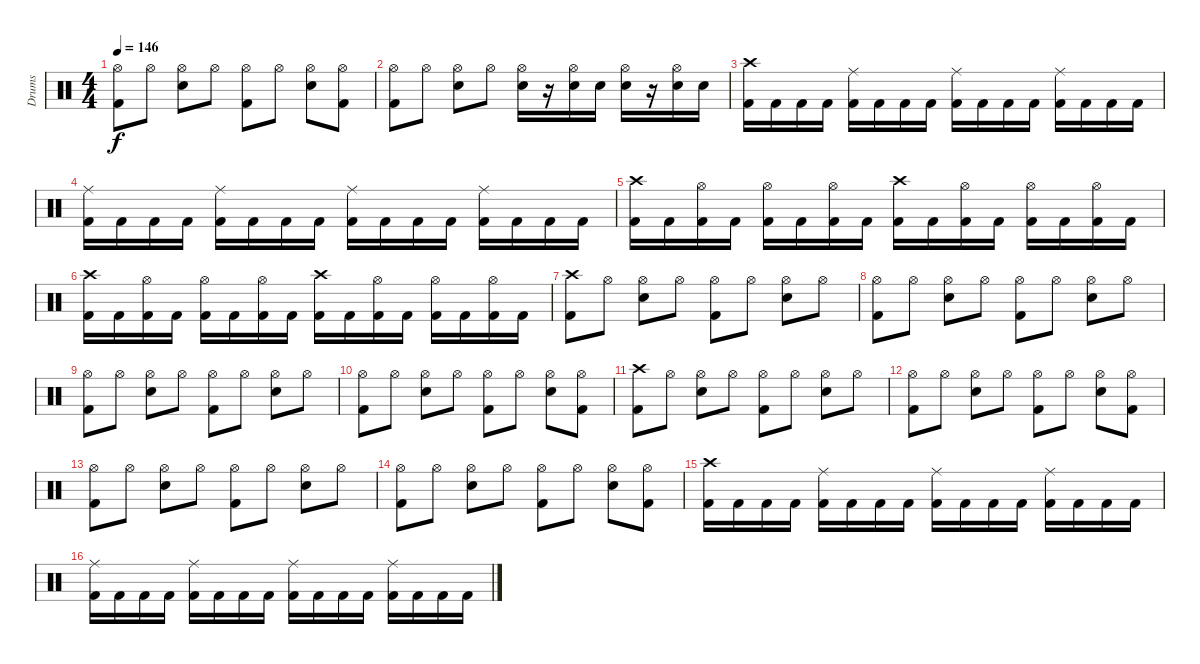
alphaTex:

\track ("Drums" "Drums") {instrument percussion}
\staff {score}
\articulation defaults
\ts (4 4)
\tempo 146
\clef neutral
\ks c
("Hi-Hat (open)" "Kick (hit) 2").8{dy f} "Hi-Hat (open)".8 ("Hi-Hat (open)" "Snare (hit) 2").8 "Hi-Hat (open)".8 ("Hi-Hat (open)" "Kick (hit) 2").8 "Hi-Hat (open)".8 ("Hi-Hat (open)" "Snare (hit) 2").8 ("Hi-Hat (open)" "Kick (hit) 2").8 |
("Hi-Hat (open)" "Kick (hit) 2").8 "Hi-Hat (open)".8 ("Hi-Hat (open)" "Snare (hit) 2").8 "Hi-Hat (open)".8 ("Hi-Hat (open)" "Snare (hit) 2").16 r.16 ("Hi-Hat (open)" "Snare (hit) 2").16 "Snare (hit) 2".16 ("Hi-Hat (open)" "Snare (hit) 2").16 r.16 ("Hi-Hat (open)" "Snare (hit) 2").16 "Snare (hit) 2".16 |
("Crash high (hit)" "Kick (hit) 2").16 "Kick (hit) 2".16 "Kick (hit) 2".16 "Kick (hit) 2".16 ("Ride (middle)" "Kick (hit) 2").16 "Kick (hit) 2".16 "Kick (hit) 2".16 "Kick (hit) 2".16 ("Ride (middle)" "Kick (hit) 2").16 "Kick (hit) 2".16 "Kick (hit) 2".16 "Kick (hit) 2".16 ("Ride (middle)" "Kick (hit) 2").16 "Kick (hit) 2".16 "Kick (hit) 2".16 "Kick (hit) 2".16 |
("Ride (middle)" "Kick (hit) 2").16 "Kick (hit) 2".16 "Kick (hit) 2".16 "Kick (hit) 2".16 ("Ride (middle)" "Kick (hit) 2").16 "Kick (hit) 2".16 "Kick (hit) 2".16 "Kick (hit) 2".16 ("Ride (middle)" "Kick (hit) 2").16 "Kick (hit) 2".16 "Kick (hit) 2".16 "Kick (hit) 2".16 ("Ride (middle)" "Kick (hit) 2").16 "Kick (hit) 2".16 "Kick (hit) 2".16 "Kick (hit) 2".16 |
("Crash high (hit)" "Kick (hit) 2").16 "Kick (hit) 2".16 ("Hi-Hat (open)" "Kick (hit) 2").16 "Kick (hit) 2".16 ("Hi-Hat (open)" "Kick (hit) 2").16 "Kick (hit) 2".16 ("Hi-Hat (open)" "Kick (hit) 2").16 "Kick (hit) 2".16 ("Crash high (hit)" "Kick (hit) 2").16 "Kick (hit) 2".16 ("Hi-Hat (open)" "Kick (hit) 2").16 "Kick (hit) 2".16 ("Hi-Hat (open)" "Kick (hit) 2").16 "Kick (hit) 2".16 ("Hi-Hat (open)" "Kick (hit) 2").16 "Kick (hit) 2".16 |
("Crash high (hit)" "Kick (hit) 2").16 "Kick (hit) 2".16 ("Hi-Hat (open)" "Kick (hit) 2").16 "Kick (hit) 2".16 ("Hi-Hat (open)" "Kick (hit) 2").16 "Kick (hit) 2".16 ("Hi-Hat (open)" "Kick (hit) 2").16 "Kick (hit) 2".16 ("Crash high (hit)" "Kick (hit) 2").16 "Kick (hit) 2".16 ("Hi-Hat (open)" "Kick (hit) 2").16 "Kick (hit) 2".16 ("Hi-Hat (open)" "Kick (hit) 2").16 "Kick (hit) 2".16 ("Hi-Hat (open)" "Kick (hit) 2").16 "Kick (hit) 2".16 |
("Crash high (hit)" "Kick (hit) 2").8 "Hi-Hat (open)".8 ("Hi-Hat (open)" "Snare (hit) 2").8 "Hi-Hat (open)".8 ("Hi-Hat (open)" "Kick (hit) 2").8 "Hi-Hat (open)".8 ("Hi-Hat (open)" "Snare (hit) 2").8 "Hi-Hat (open)".8 |
("Hi-Hat (open)" "Kick (hit) 2").8 "Hi-Hat (open)".8 ("Hi-Hat (open)" "Snare (hit) 2").8 "Hi-Hat (open)".8 ("Hi-Hat (open)" "Kick (hit) 2").8 "Hi-Hat (open)".8 ("Hi-Hat (open)" "Snare (hit) 2").8 "Hi-Hat (open)".8 |
("Hi-Hat (open)" "Kick (hit) 2").8 "Hi-Hat (open)".8 ("Hi-Hat (open)" "Snare (hit) 2").8 "Hi-Hat (open)".8 ("Hi-Hat (open)" "Kick (hit) 2").8 "Hi-Hat (open)".8 ("Hi-Hat (open)" "Snare (hit) 2").8 "Hi-Hat (open)".8 |
("Hi-Hat (open)" "Kick (hit) 2").8 "Hi-Hat (open)".8 ("Hi-Hat (open)" "Snare (hit) 2").8 "Hi-Hat (open)".8 ("Hi-Hat (open)" "Kick (hit) 2").8 "Hi-Hat (open)".8 ("Hi-Hat (open)" "Snare (hit) 2").8 ("Hi-Hat (open)" "Kick (hit) 2").8 |
("Crash high (hit)" "Kick (hit) 2").8 "Hi-Hat (open)".8 ("Hi-Hat (open)" "Snare (hit) 2").8 "Hi-Hat (open)".8 ("Hi-Hat (open)" "Kick (hit) 2").8 "Hi-Hat (open)".8 ("Hi-Hat (open)" "Snare (hit) 2").8 "Hi-Hat (open)".8 |
("Hi-Hat (open)" "Kick (hit) 2").8 "Hi-Hat (open)".8 ("Hi-Hat (open)" "Snare (hit) 2").8 "Hi-Hat (open)".8 ("Hi-Hat (open)" "Kick (hit) 2").8 "Hi-Hat (open)".8 ("Hi-Hat (open)" "Snare (hit) 2").8 ("Hi-Hat (open)" "Kick (hit) 2").8 |
("Hi-Hat (open)" "Kick (hit) 2").8 "Hi-Hat (open)".8 ("Hi-Hat (open)" "Snare (hit) 2").8 "Hi-Hat (open)".8 ("Hi-Hat (open)" "Kick (hit) 2").8 "Hi-Hat (open)".8 ("Hi-Hat (open)" "Snare (hit) 2").8 "Hi-Hat (open)".8 |
("Hi-Hat (open)" "Kick (hit) 2").8 "Hi-Hat (open)".8 ("Hi-Hat (open)" "Snare (hit) 2").8 "Hi-Hat (open)".8 ("Hi-Hat (open)" "Kick (hit) 2").8 "Hi-Hat (open)".8 ("Hi-Hat (open)" "Snare (hit) 2").8 ("Hi-Hat (open)" "Kick (hit) 2").8 |
("Crash high (hit)" "Kick (hit) 2").16 "Kick (hit) 2".16 "Kick (hit) 2".16 "Kick (hit) 2".16 ("Ride (middle)" "Kick (hit) 2").16 "Kick (hit) 2".16 "Kick (hit) 2".16 "Kick (hit) 2".16 ("Ride (middle)" "Kick (hit) 2").16 "Kick (hit) 2".16 "Kick (hit) 2".16 "Kick (hit) 2".16 ("Ride (middle)" "Kick (hit) 2").16 "Kick (hit) 2".16 "Kick (hit) 2".16 "Kick (hit) 2".16 |
("Ride (middle)" "Kick (hit) 2").16 "Kick (hit) 2".16 "Kick (hit) 2".16 "Kick (hit) 2".16 ("Ride (middle)" "Kick (hit) 2").16 "Kick (hit) 2".16 "Kick (hit) 2".16 "Kick (hit) 2".16 ("Ride (middle)" "Kick (hit) 2").16 "Kick (hit) 2".16 "Kick (hit) 2".16 "Kick (hit) 2".16 ("Ride (middle)" "Kick (hit) 2").16 "Kick (hit) 2".16 "Kick (hit) 2".16 "Kick (hit) 2".16
